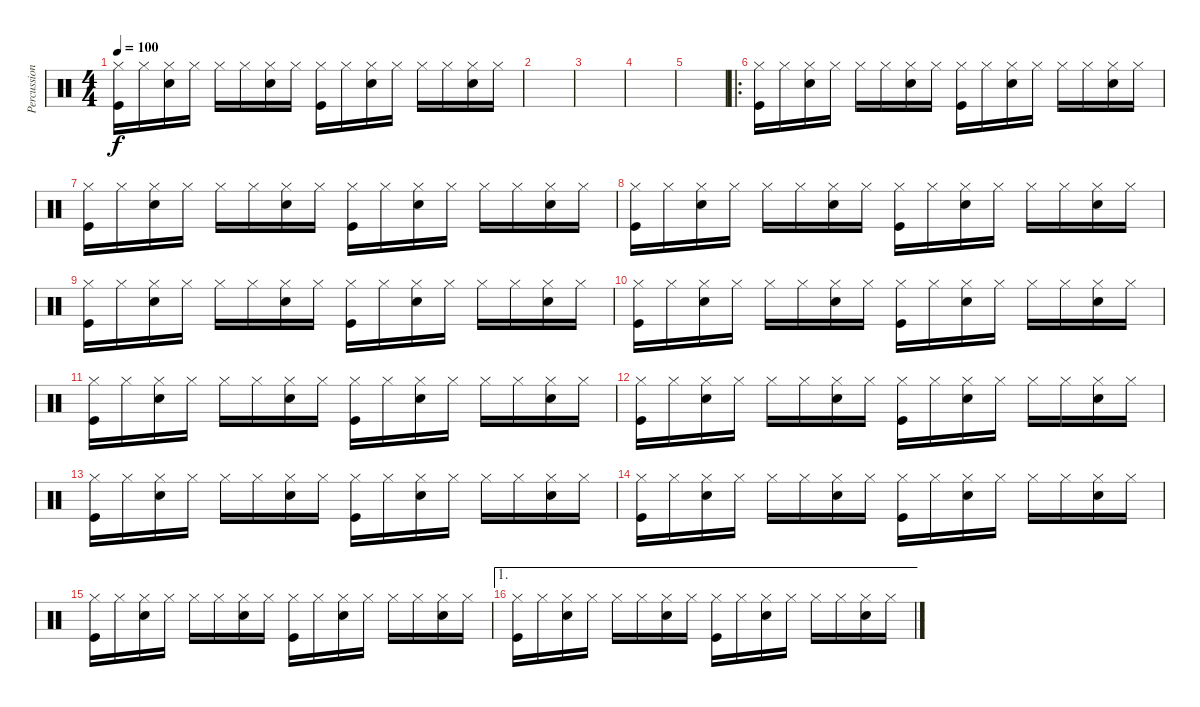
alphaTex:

\track ("Percussions" "Percussion") {instrument percussion}
\staff {score}
\articulation defaults
\ts (4 4)
\tempo 100
\clef neutral
\ks c
("Hi-Hat (closed)" "Kick (hit)").16{dy f} "Hi-Hat (closed)".16 ("Hi-Hat (closed)" "Snare (hit) 2").16 "Hi-Hat (closed)".16 "Hi-Hat (closed)".16 "Hi-Hat (closed)".16 ("Hi-Hat (closed)" "Snare (hit) 2").16 "Hi-Hat (closed)".16 ("Hi-Hat (closed)" "Kick (hit)").16 "Hi-Hat (closed)".16 ("Hi-Hat (closed)" "Snare (hit) 2").16 "Hi-Hat (closed)".16 "Hi-Hat (closed)".16 "Hi-Hat (closed)".16 ("Hi-Hat (closed)" "Snare (hit) 2").16 "Hi-Hat (closed)".16 |
|
|
|
|
\ro
("Hi-Hat (closed)" "Kick (hit)").16 "Hi-Hat (closed)".16 ("Hi-Hat (closed)" "Snare (hit) 2").16 "Hi-Hat (closed)".16 "Hi-Hat (closed)".16 "Hi-Hat (closed)".16 ("Hi-Hat (closed)" "Snare (hit) 2").16 "Hi-Hat (closed)".16 ("Hi-Hat (closed)" "Kick (hit)").16 "Hi-Hat (closed)".16 ("Hi-Hat (closed)" "Snare (hit) 2").16 "Hi-Hat (closed)".16 "Hi-Hat (closed)".16 "Hi-Hat (closed)".16 ("Hi-Hat (closed)" "Snare (hit) 2").16 "Hi-Hat (closed)".16 |
("Hi-Hat (closed)" "Kick (hit)").16 "Hi-Hat (closed)".16 ("Hi-Hat (closed)" "Snare (hit) 2").16 "Hi-Hat (closed)".16 "Hi-Hat (closed)".16 "Hi-Hat (closed)".16 ("Hi-Hat (closed)" "Snare (hit) 2").16 "Hi-Hat (closed)".16 ("Hi-Hat (closed)" "Kick (hit)").16 "Hi-Hat (closed)".16 ("Hi-Hat (closed)" "Snare (hit) 2").16 "Hi-Hat (closed)".16 "Hi-Hat (closed)".16 "Hi-Hat (closed)".16 ("Hi-Hat (closed)" "Snare (hit) 2").16 "Hi-Hat (closed)".16 |
("Hi-Hat (closed)" "Kick (hit)").16 "Hi-Hat (closed)".16 ("Hi-Hat (closed)" "Snare (hit) 2").16 "Hi-Hat (closed)".16 "Hi-Hat (closed)".16 "Hi-Hat (closed)".16 ("Hi-Hat (closed)" "Snare (hit) 2").16 "Hi-Hat (closed)".16 ("Hi-Hat (closed)" "Kick (hit)").16 "Hi-Hat (closed)".16 ("Hi-Hat (closed)" "Snare (hit) 2").16 "Hi-Hat (closed)".16 "Hi-Hat (closed)".16 "Hi-Hat (closed)".16 ("Hi-Hat (closed)" "Snare (hit) 2").16 "Hi-Hat (closed)".16 |
("Hi-Hat (closed)" "Kick (hit)").16 "Hi-Hat (closed)".16 ("Hi-Hat (closed)" "Snare (hit) 2").16 "Hi-Hat (closed)".16 "Hi-Hat (closed)".16 "Hi-Hat (closed)".16 ("Hi-Hat (closed)" "Snare (hit) 2").16 "Hi-Hat (closed)".16 ("Hi-Hat (closed)" "Kick (hit)").16 "Hi-Hat (closed)".16 ("Hi-Hat (closed)" "Snare (hit) 2").16 "Hi-Hat (closed)".16 "Hi-Hat (closed)".16 "Hi-Hat (closed)".16 ("Hi-Hat (closed)" "Snare (hit) 2").16 "Hi-Hat (closed)".16 |
("Hi-Hat (closed)" "Kick (hit)").16 "Hi-Hat (closed)".16 ("Hi-Hat (closed)" "Snare (hit) 2").16 "Hi-Hat (closed)".16 "Hi-Hat (closed)".16 "Hi-Hat (closed)".16 ("Hi-Hat (closed)" "Snare (hit) 2").16 "Hi-Hat (closed)".16 ("Hi-Hat (closed)" "Kick (hit)").16 "Hi-Hat (closed)".16 ("Hi-Hat (closed)" "Snare (hit) 2").16 "Hi-Hat (closed)".16 "Hi-Hat (closed)".16 "Hi-Hat (closed)".16 ("Hi-Hat (closed)" "Snare (hit) 2").16 "Hi-Hat (closed)".16 |
("Hi-Hat (closed)" "Kick (hit)").16 "Hi-Hat (closed)".16 ("Hi-Hat (closed)" "Snare (hit) 2").16 "Hi-Hat (closed)".16 "Hi-Hat (closed)".16 "Hi-Hat (closed)".16 ("Hi-Hat (closed)" "Snare (hit) 2").16 "Hi-Hat (closed)".16 ("Hi-Hat (closed)" "Kick (hit)").16 "Hi-Hat (closed)".16 ("Hi-Hat (closed)" "Snare (hit) 2").16 "Hi-Hat (closed)".16 "Hi-Hat (closed)".16 "Hi-Hat (closed)".16 ("Hi-Hat (closed)" "Snare (hit) 2").16 "Hi-Hat (closed)".16 |
("Hi-Hat (closed)" "Kick (hit)").16 "Hi-Hat (closed)".16 ("Hi-Hat (closed)" "Snare (hit) 2").16 "Hi-Hat (closed)".16 "Hi-Hat (closed)".16 "Hi-Hat (closed)".16 ("Hi-Hat (closed)" "Snare (hit) 2").16 "Hi-Hat (closed)".16 ("Hi-Hat (closed)" "Kick (hit)").16 "Hi-Hat (closed)".16 ("Hi-Hat (closed)" "Snare (hit) 2").16 "Hi-Hat (closed)".16 "Hi-Hat (closed)".16 "Hi-Hat (closed)".16 ("Hi-Hat (closed)" "Snare (hit) 2").16 "Hi-Hat (closed)".16 |
("Hi-Hat (closed)" "Kick (hit)").16 "Hi-Hat (closed)".16 ("Hi-Hat (closed)" "Snare (hit) 2").16 "Hi-Hat (closed)".16 "Hi-Hat (closed)".16 "Hi-Hat (closed)".16 ("Hi-Hat (closed)" "Snare (hit) 2").16 "Hi-Hat (closed)".16 ("Hi-Hat (closed)" "Kick (hit)").16 "Hi-Hat (closed)".16 ("Hi-Hat (closed)" "Snare (hit) 2").16 "Hi-Hat (closed)".16 "Hi-Hat (closed)".16 "Hi-Hat (closed)".16 ("Hi-Hat (closed)" "Snare (hit) 2").16 "Hi-Hat (closed)".16 |
("Hi-Hat (closed)" "Kick (hit)").16 "Hi-Hat (closed)".16 ("Hi-Hat (closed)" "Snare (hit) 2").16 "Hi-Hat (closed)".16 "Hi-Hat (closed)".16 "Hi-Hat (closed)".16 ("Hi-Hat (closed)" "Snare (hit) 2").16 "Hi-Hat (closed)".16 ("Hi-Hat (closed)" "Kick (hit)").16 "Hi-Hat (closed)".16 ("Hi-Hat (closed)" "Snare (hit) 2").16 "Hi-Hat (closed)".16 "Hi-Hat (closed)".16 "Hi-Hat (closed)".16 ("Hi-Hat (closed)" "Snare (hit) 2").16 "Hi-Hat (closed)".16 |
("Hi-Hat (closed)" "Kick (hit)").16 "Hi-Hat (closed)".16 ("Hi-Hat (closed)" "Snare (hit) 2").16 "Hi-Hat (closed)".16 "Hi-Hat (closed)".16 "Hi-Hat (closed)".16 ("Hi-Hat (closed)" "Snare (hit) 2").16 "Hi-Hat (closed)".16 ("Hi-Hat (closed)" "Kick (hit)").16 "Hi-Hat (closed)".16 ("Hi-Hat (closed)" "Snare (hit) 2").16 "Hi-Hat (closed)".16 "Hi-Hat (closed)".16 "Hi-Hat (closed)".16 ("Hi-Hat (closed)" "Snare (hit) 2").16 "Hi-Hat (closed)".16 |
\ae 1
("Hi-Hat (closed)" "Kick (hit)").16 "Hi-Hat (closed)".16 ("Hi-Hat (closed)" "Snare (hit) 2").16 "Hi-Hat (closed)".16 "Hi-Hat (closed)".16 "Hi-Hat (closed)".16 ("Hi-Hat (closed)" "Snare (hit) 2").16 "Hi-Hat (closed)".16 ("Hi-Hat (closed)" "Kick (hit)").16 "Hi-Hat (closed)".16 ("Hi-Hat (closed)" "Snare (hit) 2").16 "Hi-Hat (closed)".16 "Hi-Hat (closed)".16 "Hi-Hat (closed)".16 ("Hi-Hat (closed)" "Snare (hit) 2").16 "Hi-Hat (closed)".16
